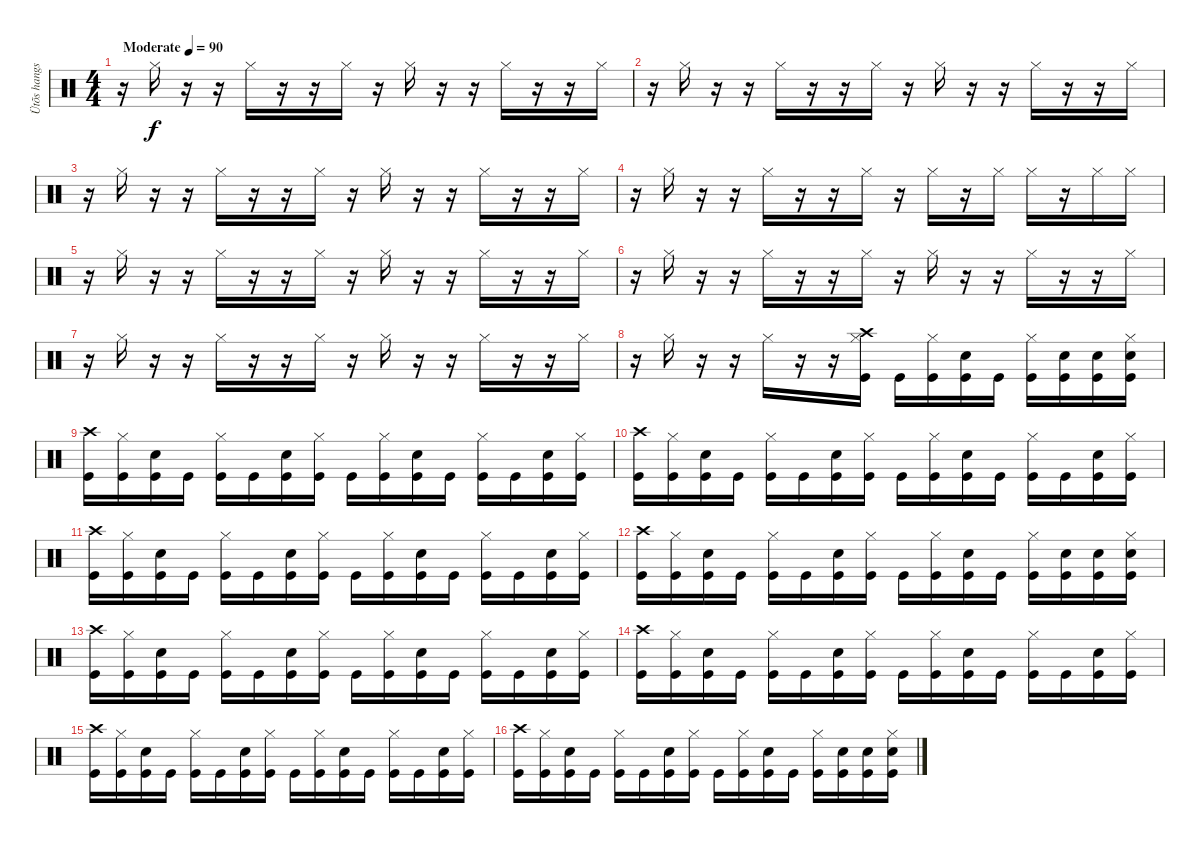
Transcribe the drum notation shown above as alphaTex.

\track ("Ütõs hangszer" "Ütõs hangs") {instrument percussion}
\staff {score}
\articulation defaults
\ts (4 4)
\tempo (90 "Moderate")
\clef neutral
\ks c
r.16{dy f} "Hi-Hat (closed)".16 r.16 r.16 "Hi-Hat (closed)".16 r.16 r.16 "Hi-Hat (closed)".16 r.16 "Hi-Hat (closed)".16 r.16 r.16 "Hi-Hat (closed)".16 r.16 r.16 "Hi-Hat (closed)".16 |
r.16 "Hi-Hat (closed)".16 r.16 r.16 "Hi-Hat (closed)".16 r.16 r.16 "Hi-Hat (closed)".16 r.16 "Hi-Hat (closed)".16 r.16 r.16 "Hi-Hat (closed)".16 r.16 r.16 "Hi-Hat (closed)".16 |
r.16 "Hi-Hat (closed)".16 r.16 r.16 "Hi-Hat (closed)".16 r.16 r.16 "Hi-Hat (closed)".16 r.16 "Hi-Hat (closed)".16 r.16 r.16 "Hi-Hat (closed)".16 r.16 r.16 "Hi-Hat (closed)".16 |
r.16 "Hi-Hat (closed)".16 r.16 r.16 "Hi-Hat (closed)".16 r.16 r.16 "Hi-Hat (closed)".16 r.16 "Hi-Hat (closed)".16 r.16 "Hi-Hat (closed)".16 "Hi-Hat (closed)".16 r.16 "Hi-Hat (closed)".16 "Hi-Hat (closed)".16 |
r.16 "Hi-Hat (closed)".16 r.16 r.16 "Hi-Hat (closed)".16 r.16 r.16 "Hi-Hat (closed)".16 r.16 "Hi-Hat (closed)".16 r.16 r.16 "Hi-Hat (closed)".16 r.16 r.16 "Hi-Hat (closed)".16 |
r.16 "Hi-Hat (closed)".16 r.16 r.16 "Hi-Hat (closed)".16 r.16 r.16 "Hi-Hat (closed)".16 r.16 "Hi-Hat (closed)".16 r.16 r.16 "Hi-Hat (closed)".16 r.16 r.16 "Hi-Hat (closed)".16 |
r.16 "Hi-Hat (closed)".16 r.16 r.16 "Hi-Hat (closed)".16 r.16 r.16 "Hi-Hat (closed)".16 r.16 "Hi-Hat (closed)".16 r.16 r.16 "Hi-Hat (closed)".16 r.16 r.16 "Hi-Hat (closed)".16 |
r.16 "Hi-Hat (closed)".16 r.16 r.16 "Hi-Hat (closed)".16 r.16 r.16 ("Hi-Hat (closed)" "Crash high (hit)" "Kick (hit)").16 "Kick (hit)".16 ("Hi-Hat (closed)" "Kick (hit)").16 ("Electric Snare (hit)" "Kick (hit)").16 "Kick (hit)".16 ("Hi-Hat (closed)" "Kick (hit)").16 ("Electric Snare (hit)" "Kick (hit)").16 ("Electric Snare (hit)" "Kick (hit)").16 ("Hi-Hat (closed)" "Electric Snare (hit)" "Kick (hit)").16 |
("Crash high (hit)" "Kick (hit)").16 ("Hi-Hat (closed)" "Kick (hit)").16 ("Electric Snare (hit)" "Kick (hit)").16 "Kick (hit)".16 ("Hi-Hat (closed)" "Kick (hit)").16 "Kick (hit)".16 ("Electric Snare (hit)" "Kick (hit)").16 ("Hi-Hat (closed)" "Kick (hit)").16 "Kick (hit)".16 ("Hi-Hat (closed)" "Kick (hit)").16 ("Electric Snare (hit)" "Kick (hit)").16 "Kick (hit)".16 ("Hi-Hat (closed)" "Kick (hit)").16 "Kick (hit)".16 ("Electric Snare (hit)" "Kick (hit)").16 ("Hi-Hat (closed)" "Kick (hit)").16 |
("Crash high (hit)" "Kick (hit)").16 ("Hi-Hat (closed)" "Kick (hit)").16 ("Electric Snare (hit)" "Kick (hit)").16 "Kick (hit)".16 ("Hi-Hat (closed)" "Kick (hit)").16 "Kick (hit)".16 ("Electric Snare (hit)" "Kick (hit)").16 ("Hi-Hat (closed)" "Kick (hit)").16 "Kick (hit)".16 ("Hi-Hat (closed)" "Kick (hit)").16 ("Electric Snare (hit)" "Kick (hit)").16 "Kick (hit)".16 ("Hi-Hat (closed)" "Kick (hit)").16 "Kick (hit)".16 ("Electric Snare (hit)" "Kick (hit)").16 ("Hi-Hat (closed)" "Kick (hit)").16 |
("Crash high (hit)" "Kick (hit)").16 ("Hi-Hat (closed)" "Kick (hit)").16 ("Electric Snare (hit)" "Kick (hit)").16 "Kick (hit)".16 ("Hi-Hat (closed)" "Kick (hit)").16 "Kick (hit)".16 ("Electric Snare (hit)" "Kick (hit)").16 ("Hi-Hat (closed)" "Kick (hit)").16 "Kick (hit)".16 ("Hi-Hat (closed)" "Kick (hit)").16 ("Electric Snare (hit)" "Kick (hit)").16 "Kick (hit)".16 ("Hi-Hat (closed)" "Kick (hit)").16 "Kick (hit)".16 ("Electric Snare (hit)" "Kick (hit)").16 ("Hi-Hat (closed)" "Kick (hit)").16 |
("Crash high (hit)" "Kick (hit)").16 ("Hi-Hat (closed)" "Kick (hit)").16 ("Electric Snare (hit)" "Kick (hit)").16 "Kick (hit)".16 ("Hi-Hat (closed)" "Kick (hit)").16 "Kick (hit)".16 ("Electric Snare (hit)" "Kick (hit)").16 ("Hi-Hat (closed)" "Kick (hit)").16 "Kick (hit)".16 ("Hi-Hat (closed)" "Kick (hit)").16 ("Electric Snare (hit)" "Kick (hit)").16 "Kick (hit)".16 ("Hi-Hat (closed)" "Kick (hit)").16 ("Electric Snare (hit)" "Kick (hit)").16 ("Electric Snare (hit)" "Kick (hit)").16 ("Hi-Hat (closed)" "Electric Snare (hit)" "Kick (hit)").16 |
("Crash high (hit)" "Kick (hit)").16 ("Hi-Hat (closed)" "Kick (hit)").16 ("Electric Snare (hit)" "Kick (hit)").16 "Kick (hit)".16 ("Hi-Hat (closed)" "Kick (hit)").16 "Kick (hit)".16 ("Electric Snare (hit)" "Kick (hit)").16 ("Hi-Hat (closed)" "Kick (hit)").16 "Kick (hit)".16 ("Hi-Hat (closed)" "Kick (hit)").16 ("Electric Snare (hit)" "Kick (hit)").16 "Kick (hit)".16 ("Hi-Hat (closed)" "Kick (hit)").16 "Kick (hit)".16 ("Electric Snare (hit)" "Kick (hit)").16 ("Hi-Hat (closed)" "Kick (hit)").16 |
("Crash high (hit)" "Kick (hit)").16 ("Hi-Hat (closed)" "Kick (hit)").16 ("Electric Snare (hit)" "Kick (hit)").16 "Kick (hit)".16 ("Hi-Hat (closed)" "Kick (hit)").16 "Kick (hit)".16 ("Electric Snare (hit)" "Kick (hit)").16 ("Hi-Hat (closed)" "Kick (hit)").16 "Kick (hit)".16 ("Hi-Hat (closed)" "Kick (hit)").16 ("Electric Snare (hit)" "Kick (hit)").16 "Kick (hit)".16 ("Hi-Hat (closed)" "Kick (hit)").16 "Kick (hit)".16 ("Electric Snare (hit)" "Kick (hit)").16 ("Hi-Hat (closed)" "Kick (hit)").16 |
("Crash high (hit)" "Kick (hit)").16 ("Hi-Hat (closed)" "Kick (hit)").16 ("Electric Snare (hit)" "Kick (hit)").16 "Kick (hit)".16 ("Hi-Hat (closed)" "Kick (hit)").16 "Kick (hit)".16 ("Electric Snare (hit)" "Kick (hit)").16 ("Hi-Hat (closed)" "Kick (hit)").16 "Kick (hit)".16 ("Hi-Hat (closed)" "Kick (hit)").16 ("Electric Snare (hit)" "Kick (hit)").16 "Kick (hit)".16 ("Hi-Hat (closed)" "Kick (hit)").16 "Kick (hit)".16 ("Electric Snare (hit)" "Kick (hit)").16 ("Hi-Hat (closed)" "Kick (hit)").16 |
("Crash high (hit)" "Kick (hit)").16 ("Hi-Hat (closed)" "Kick (hit)").16 ("Electric Snare (hit)" "Kick (hit)").16 "Kick (hit)".16 ("Hi-Hat (closed)" "Kick (hit)").16 "Kick (hit)".16 ("Electric Snare (hit)" "Kick (hit)").16 ("Hi-Hat (closed)" "Kick (hit)").16 "Kick (hit)".16 ("Hi-Hat (closed)" "Kick (hit)").16 ("Electric Snare (hit)" "Kick (hit)").16 "Kick (hit)".16 ("Hi-Hat (closed)" "Kick (hit)").16 ("Electric Snare (hit)" "Kick (hit)").16 ("Electric Snare (hit)" "Kick (hit)").16 ("Hi-Hat (closed)" "Electric Snare (hit)" "Kick (hit)").16
